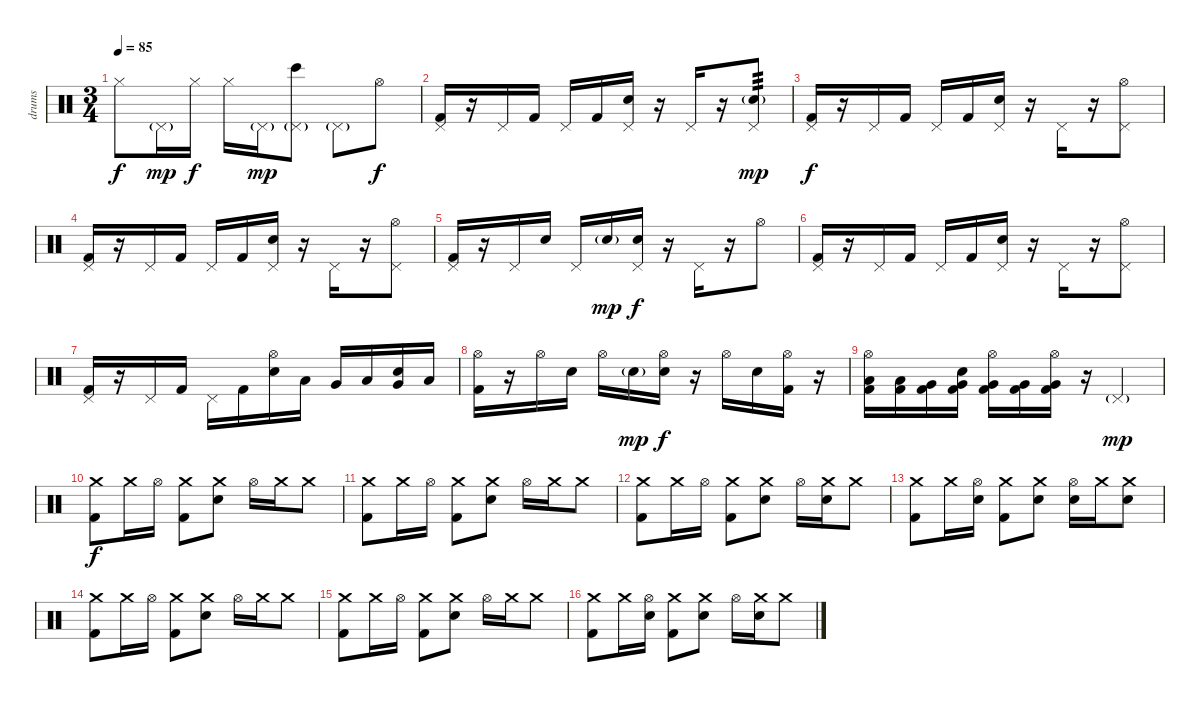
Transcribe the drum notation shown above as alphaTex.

\track ("drums" "drums") {instrument percussion}
\staff {score}
\articulation defaults
\ts (3 4)
\tempo 85
\clef neutral
\ks c "Hi-Hat (closed)".8{dy f} "Pedal Hi-Hat (hit)"{g}.16{dy mp} "Hi-Hat (closed)".16{dy f} "Hi-Hat (closed)".16 "Pedal Hi-Hat (hit)"{g}.16{dy mp}
("Bongo High (hit)" "Pedal Hi-Hat (hit)"{g}).8 "Pedal Hi-Hat (hit)"{g}.8 "Hi-Hat (open)".8{dy f} |
("Kick (hit) 2" "Pedal Hi-Hat (hit)").16 r.16 "Pedal Hi-Hat (hit)".16 "Kick (hit) 2".16 "Pedal Hi-Hat (hit)".16 "Kick (hit) 2".16 ("Snare (hit) 2" "Pedal Hi-Hat (hit)").16 r.16 "Pedal Hi-Hat (hit)".16 r.16 ("Snare (hit) 2"{g} "Pedal Hi-Hat (hit)").8{tp 3 dy mp} |
("Kick (hit) 2" "Pedal Hi-Hat (hit)").16{dy f} r.16 "Pedal Hi-Hat (hit)".16 "Kick (hit) 2".16 "Pedal Hi-Hat (hit)".16 "Kick (hit) 2".16 ("Snare (hit) 2" "Pedal Hi-Hat (hit)").16 r.16 "Pedal Hi-Hat (hit)".16 r.16 ("Hi-Hat (open)" "Pedal Hi-Hat (hit)").8 |
("Kick (hit) 2" "Pedal Hi-Hat (hit)").16 r.16 "Pedal Hi-Hat (hit)".16 "Kick (hit) 2".16 "Pedal Hi-Hat (hit)".16 "Kick (hit) 2".16 ("Snare (hit) 2" "Pedal Hi-Hat (hit)").16 r.16 "Pedal Hi-Hat (hit)".16 r.16 ("Hi-Hat (open)" "Pedal Hi-Hat (hit)").8 |
("Kick (hit) 2" "Pedal Hi-Hat (hit)").16 r.16 "Pedal Hi-Hat (hit)".16 "Snare (hit) 2".16 "Pedal Hi-Hat (hit)".16 "Snare (hit) 2"{g}.16{dy mp} ("Snare (hit) 2" "Pedal Hi-Hat (hit)").16{dy f} r.16 "Pedal Hi-Hat (hit)".16 r.16 "Hi-Hat (open)".8 |
("Kick (hit) 2" "Pedal Hi-Hat (hit)").16 r.16 "Pedal Hi-Hat (hit)".16 "Kick (hit) 2".16 "Pedal Hi-Hat (hit)".16 "Kick (hit) 2".16 ("Snare (hit) 2" "Pedal Hi-Hat (hit)").16 r.16 "Pedal Hi-Hat (hit)".16 r.16 ("Hi-Hat (open)" "Pedal Hi-Hat (hit)").8 |
("Kick (hit) 2" "Pedal Hi-Hat (hit)").16 r.16 "Pedal Hi-Hat (hit)".16 "Kick (hit) 2".16 "Pedal Hi-Hat (hit)".16 "Kick (hit) 2".16 ("Hi-Hat (open)" "Snare (hit) 2").16 "Low Floor Tom (hit)".16 "Very Low Tom (hit)".16 "Low Floor Tom (hit)".16 ("Snare (hit) 2" "Very Low Tom (hit)").16 "Low Tom (hit)".16 |
("Kick (hit) 2" "Hi-Hat (open)").16 r.16 "Hi-Hat (open)".16 "Snare (hit) 2".16 "Hi-Hat (open)".16 "Snare (hit) 2"{g}.16{dy mp} ("Snare (hit) 2" "Hi-Hat (open)").16{dy f} r.16 "Hi-Hat (open)".16 "Snare (hit) 2".16 ("Kick (hit) 2" "Hi-Hat (open)").16 r.16 |
("Hi-Hat (open)" "Kick (hit) 2" "Low Floor Tom (hit)").16 ("Kick (hit) 2" "Low Floor Tom (hit)").16 ("Kick (hit) 2" "Very Low Tom (hit)").16 ("Snare (hit) 2" "Kick (hit) 2" "Very Low Tom (hit)").16 ("Hi-Hat (open)" "Kick (hit) 2" "Very Low Tom (hit)").16 ("Kick (hit) 2" "Very Low Tom (hit)").16 ("Hi-Hat (open)" "Very Low Tom (hit)" "Kick (hit) 2").16 r.16 "Pedal Hi-Hat (hit)"{g}.4{dy mp} |
("Crash medium (hit)" "Kick (hit) 2").8{dy f} "Crash medium (hit)".16 "Hi-Hat (open)".16 ("Kick (hit) 2" "Crash medium (hit)").8 ("Snare (hit) 2" "Crash medium (hit)").8 "Hi-Hat (open)".16 "Crash medium (hit)".16 "Crash medium (hit)".8 |
("Crash medium (hit)" "Kick (hit) 2").8 "Crash medium (hit)".16 "Hi-Hat (open)".16 ("Kick (hit) 2" "Crash medium (hit)").8 ("Snare (hit) 2" "Crash medium (hit)").8 "Hi-Hat (open)".16 "Crash medium (hit)".16 "Crash medium (hit)".8 |
("Crash medium (hit)" "Kick (hit) 2").8 "Crash medium (hit)".16 "Hi-Hat (open)".16 ("Kick (hit) 2" "Crash medium (hit)").8 ("Snare (hit) 2" "Crash medium (hit)").8 "Hi-Hat (open)".16 ("Snare (hit) 2" "Crash medium (hit)").16 "Crash medium (hit)".8 |
("Crash medium (hit)" "Kick (hit) 2").8 "Crash medium (hit)".16 ("Snare (hit) 2" "Hi-Hat (open)").16 ("Kick (hit) 2" "Crash medium (hit)").8 ("Snare (hit) 2" "Crash medium (hit)").8 ("Snare (hit) 2" "Hi-Hat (open)").16 "Crash medium (hit)".16 ("Snare (hit) 2" "Crash medium (hit)").8 |
("Crash medium (hit)" "Kick (hit) 2").8 "Crash medium (hit)".16 "Hi-Hat (open)".16 ("Kick (hit) 2" "Crash medium (hit)").8 ("Snare (hit) 2" "Crash medium (hit)").8 "Hi-Hat (open)".16 "Crash medium (hit)".16 "Crash medium (hit)".8 |
("Crash medium (hit)" "Kick (hit) 2").8 "Crash medium (hit)".16 "Hi-Hat (open)".16 ("Kick (hit) 2" "Crash medium (hit)").8 ("Snare (hit) 2" "Crash medium (hit)").8 "Hi-Hat (open)".16 "Crash medium (hit)".16 "Crash medium (hit)".8 |
("Crash medium (hit)" "Kick (hit) 2").8 "Crash medium (hit)".16 ("Snare (hit) 2" "Hi-Hat (open)").16 ("Kick (hit) 2" "Crash medium (hit)").8 ("Snare (hit) 2" "Crash medium (hit)").8 "Hi-Hat (open)".16 ("Snare (hit) 2" "Crash medium (hit)").16 "Crash medium (hit)".8
